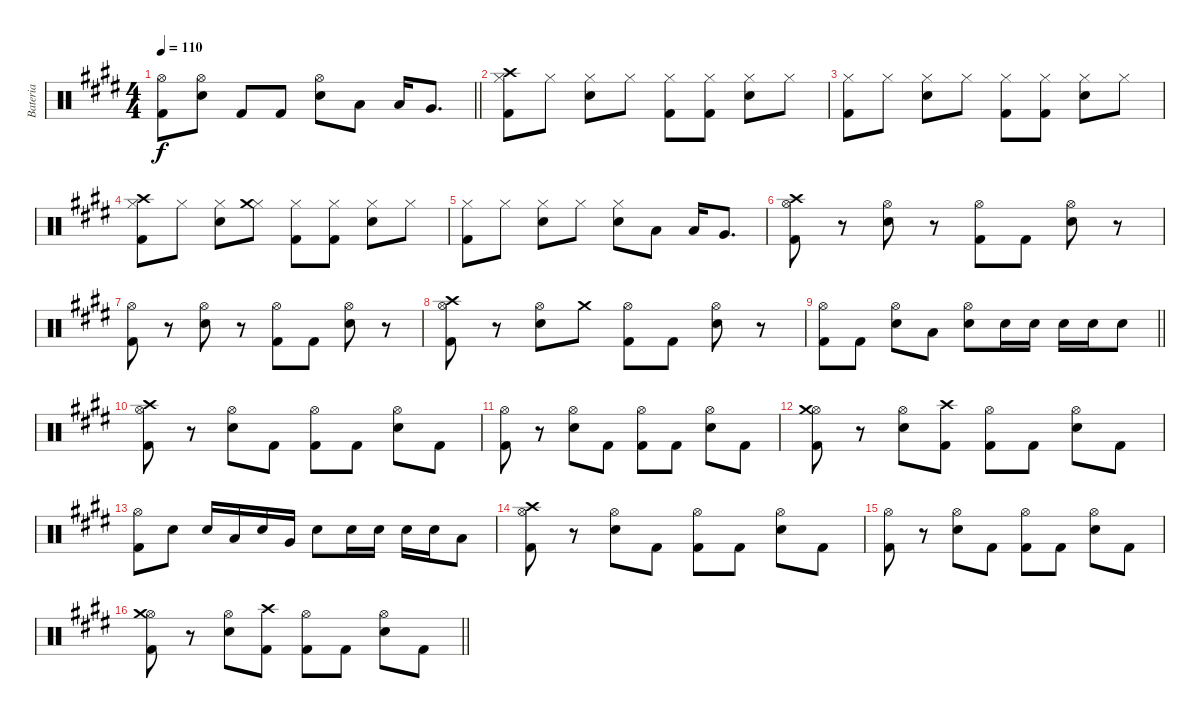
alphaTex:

\track ("Bateria" "Bateria") {instrument percussion}
\staff {score}
\articulation defaults
\ts (4 4)
\tempo 110
\clef neutral
\barLineRight lightlight
\ks e
("Hi-Hat (open)" "Kick (hit) 2").8{dy f} ("Hi-Hat (open)" "Snare (hit) 2").8 "Kick (hit) 2".8 "Kick (hit) 2".8 ("Hi-Hat (open)" "Snare (hit) 2").8 "Low Tom (hit)".8 "Low Tom (hit)".16 "Very Low Tom (hit)".8{d} |
\section ("" "")
("Hi-Hat (closed)" "Kick (hit) 2" "Crash high (hit)").8 "Hi-Hat (closed)".8 ("Hi-Hat (closed)" "Snare (hit) 2").8 "Hi-Hat (closed)".8 ("Hi-Hat (closed)" "Kick (hit) 2").8 ("Hi-Hat (closed)" "Kick (hit) 2").8 ("Hi-Hat (closed)" "Snare (hit) 2").8 "Hi-Hat (closed)".8 |
("Hi-Hat (closed)" "Kick (hit) 2").8 "Hi-Hat (closed)".8 ("Hi-Hat (closed)" "Snare (hit) 2").8 "Hi-Hat (closed)".8 ("Hi-Hat (closed)" "Kick (hit) 2").8 ("Hi-Hat (closed)" "Kick (hit) 2").8 ("Hi-Hat (closed)" "Snare (hit) 2").8 "Hi-Hat (closed)".8 |
("Hi-Hat (closed)" "Kick (hit) 2" "Crash high (hit)").8 "Hi-Hat (closed)".8 ("Hi-Hat (closed)" "Snare (hit) 2").8 ("Hi-Hat (closed)" "Crash medium (hit)").8 ("Hi-Hat (closed)" "Kick (hit) 2").8 ("Hi-Hat (closed)" "Kick (hit) 2").8 ("Hi-Hat (closed)" "Snare (hit) 2").8 "Hi-Hat (closed)".8 |
("Hi-Hat (closed)" "Kick (hit) 2").8 "Hi-Hat (closed)".8 ("Hi-Hat (closed)" "Snare (hit) 2").8 "Hi-Hat (closed)".8 ("Hi-Hat (closed)" "Snare (hit) 2").8 "Low Tom (hit)".8 "Low Tom (hit)".16 "Very Low Tom (hit)".8{d} |
("Hi-Hat (open)" "Kick (hit) 2" "Crash high (hit)").8 r.8 ("Hi-Hat (open)" "Snare (hit) 2").8 r.8 ("Hi-Hat (open)" "Kick (hit) 2").8 "Kick (hit) 2".8 ("Hi-Hat (open)" "Snare (hit) 2").8 r.8 |
("Hi-Hat (open)" "Kick (hit) 2").8 r.8 ("Hi-Hat (open)" "Snare (hit) 2").8 r.8 ("Hi-Hat (open)" "Kick (hit) 2").8 "Kick (hit) 2".8 ("Hi-Hat (open)" "Snare (hit) 2").8 r.8 |
("Hi-Hat (open)" "Kick (hit) 2" "Crash high (hit)").8 r.8 ("Hi-Hat (open)" "Snare (hit) 2").8 "Crash medium (hit)".8 ("Hi-Hat (open)" "Kick (hit) 2").8 "Kick (hit) 2".8 ("Hi-Hat (open)" "Snare (hit) 2").8 r.8 |
\barLineRight lightlight
("Hi-Hat (open)" "Kick (hit) 2").8 "Kick (hit) 2".8 ("Hi-Hat (open)" "Snare (hit) 2").8 "Low Tom (hit)".8 ("Hi-Hat (open)" "Snare (hit) 2").8 "Snare (hit) 2".16 "Snare (hit) 2".16 "Snare (hit) 2".16 "Snare (hit) 2".16 "Snare (hit) 2".8 |
\section ("" "")
("Hi-Hat (open)" "Kick (hit) 2" "Crash high (hit)").8 r.8 ("Hi-Hat (open)" "Snare (hit) 2").8 "Kick (hit) 2".8 ("Hi-Hat (open)" "Kick (hit) 2").8 "Kick (hit) 2".8 ("Hi-Hat (open)" "Snare (hit) 2").8 "Kick (hit) 2".8 |
("Hi-Hat (open)" "Kick (hit) 2").8 r.8 ("Hi-Hat (open)" "Snare (hit) 2").8 "Kick (hit) 2".8 ("Hi-Hat (open)" "Kick (hit) 2").8 "Kick (hit) 2".8 ("Hi-Hat (open)" "Snare (hit) 2").8 "Kick (hit) 2".8 |
("Hi-Hat (open)" "Kick (hit) 2" "Crash medium (hit)").8 r.8 ("Hi-Hat (open)" "Snare (hit) 2").8 ("Kick (hit) 2" "Crash high (hit)").8 ("Hi-Hat (open)" "Kick (hit) 2").8 "Kick (hit) 2".8 ("Hi-Hat (open)" "Snare (hit) 2").8 "Kick (hit) 2".8 |
("Hi-Hat (open)" "Kick (hit) 2").8 "Snare (hit) 2".8 "Snare (hit) 2".16 "Low Tom (hit)".16 "Snare (hit) 2".16 "Very Low Tom (hit)".16 "Snare (hit) 2".8 "Snare (hit) 2".16 "Snare (hit) 2".16 "Snare (hit) 2".16 "Snare (hit) 2".16 "Low Tom (hit)".8 |
("Hi-Hat (open)" "Kick (hit) 2" "Crash high (hit)").8 r.8 ("Hi-Hat (open)" "Snare (hit) 2").8 "Kick (hit) 2".8 ("Hi-Hat (open)" "Kick (hit) 2").8 "Kick (hit) 2".8 ("Hi-Hat (open)" "Snare (hit) 2").8 "Kick (hit) 2".8 |
("Hi-Hat (open)" "Kick (hit) 2").8 r.8 ("Hi-Hat (open)" "Snare (hit) 2").8 "Kick (hit) 2".8 ("Hi-Hat (open)" "Kick (hit) 2").8 "Kick (hit) 2".8 ("Hi-Hat (open)" "Snare (hit) 2").8 "Kick (hit) 2".8 |
\barLineRight lightlight
("Hi-Hat (open)" "Kick (hit) 2" "Crash medium (hit)").8 r.8 ("Hi-Hat (open)" "Snare (hit) 2").8 ("Kick (hit) 2" "Crash high (hit)").8 ("Hi-Hat (open)" "Kick (hit) 2").8 "Kick (hit) 2".8 ("Hi-Hat (open)" "Snare (hit) 2").8 "Kick (hit) 2".8
